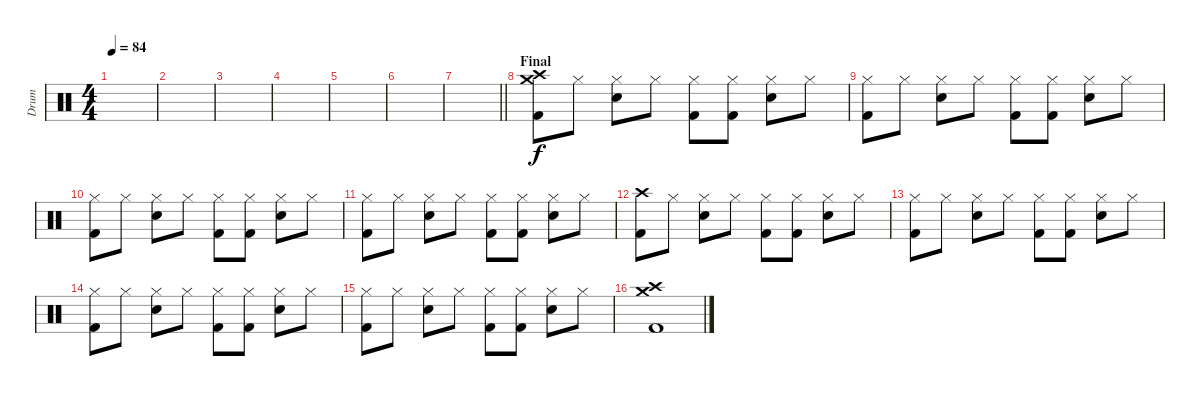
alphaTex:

\track ("Drum" "Drum") {instrument percussion}
\staff {score}
\articulation defaults
\ts (4 4)
\tempo 84
\clef neutral
\ks c
|
|
|
|
|
|
\barLineRight lightlight
|
\section ("" "Final")
("Crash high (hit)" "Crash medium (hit)" "Kick (hit) 2").8 "Hi-Hat (closed)".8 ("Hi-Hat (closed)" "Electric Snare (hit)").8 "Hi-Hat (closed)".8 ("Hi-Hat (closed)" "Kick (hit) 2").8 ("Hi-Hat (closed)" "Kick (hit) 2").8 ("Hi-Hat (closed)" "Electric Snare (hit)").8 "Hi-Hat (closed)".8 |
("Hi-Hat (closed)" "Kick (hit) 2").8 "Hi-Hat (closed)".8 ("Hi-Hat (closed)" "Electric Snare (hit)").8 "Hi-Hat (closed)".8 ("Hi-Hat (closed)" "Kick (hit) 2").8 ("Hi-Hat (closed)" "Kick (hit) 2").8 ("Hi-Hat (closed)" "Electric Snare (hit)").8 "Hi-Hat (closed)".8 |
("Hi-Hat (closed)" "Kick (hit) 2").8 "Hi-Hat (closed)".8 ("Hi-Hat (closed)" "Electric Snare (hit)").8 "Hi-Hat (closed)".8 ("Hi-Hat (closed)" "Kick (hit) 2").8 ("Hi-Hat (closed)" "Kick (hit) 2").8 ("Hi-Hat (closed)" "Electric Snare (hit)").8 "Hi-Hat (closed)".8 |
("Hi-Hat (closed)" "Kick (hit) 2").8 "Hi-Hat (closed)".8 ("Hi-Hat (closed)" "Electric Snare (hit)").8 "Hi-Hat (closed)".8 ("Hi-Hat (closed)" "Kick (hit) 2").8 ("Hi-Hat (closed)" "Kick (hit) 2").8 ("Hi-Hat (closed)" "Electric Snare (hit)").8 "Hi-Hat (closed)".8 |
("Crash high (hit)" "Kick (hit) 2").8 "Hi-Hat (closed)".8 ("Hi-Hat (closed)" "Electric Snare (hit)").8 "Hi-Hat (closed)".8 ("Hi-Hat (closed)" "Kick (hit) 2").8 ("Hi-Hat (closed)" "Kick (hit) 2").8 ("Hi-Hat (closed)" "Electric Snare (hit)").8 "Hi-Hat (closed)".8 |
("Hi-Hat (closed)" "Kick (hit) 2").8 "Hi-Hat (closed)".8 ("Hi-Hat (closed)" "Electric Snare (hit)").8 "Hi-Hat (closed)".8 ("Hi-Hat (closed)" "Kick (hit) 2").8 ("Hi-Hat (closed)" "Kick (hit) 2").8 ("Hi-Hat (closed)" "Electric Snare (hit)").8 "Hi-Hat (closed)".8 |
("Hi-Hat (closed)" "Kick (hit) 2").8 "Hi-Hat (closed)".8 ("Hi-Hat (closed)" "Electric Snare (hit)").8 "Hi-Hat (closed)".8 ("Hi-Hat (closed)" "Kick (hit) 2").8 ("Hi-Hat (closed)" "Kick (hit) 2").8 ("Hi-Hat (closed)" "Electric Snare (hit)").8 "Hi-Hat (closed)".8 |
("Hi-Hat (closed)" "Kick (hit) 2").8 "Hi-Hat (closed)".8 ("Hi-Hat (closed)" "Electric Snare (hit)").8 "Hi-Hat (closed)".8 ("Hi-Hat (closed)" "Kick (hit) 2").8 ("Hi-Hat (closed)" "Kick (hit) 2").8 ("Hi-Hat (closed)" "Electric Snare (hit)").8 "Hi-Hat (closed)".8 |
("Crash high (hit)" "Crash medium (hit)" "Kick (hit) 2").1
